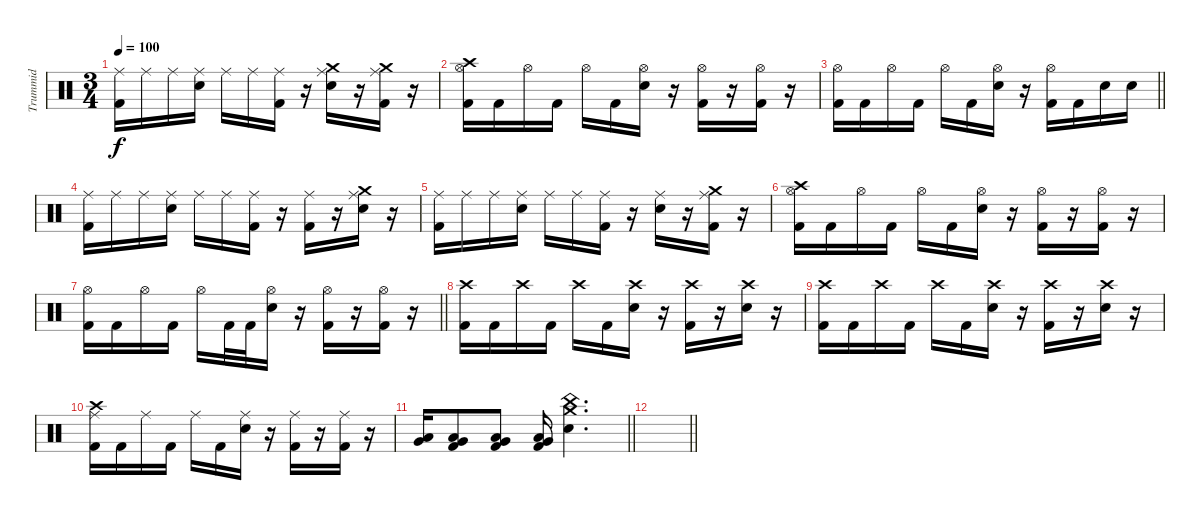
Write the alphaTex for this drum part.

\track ("Trummid" "Trummid") {instrument percussion}
\staff {score}
\articulation defaults
\ts (3 4)
\tempo 100
\clef neutral
\ks c
("Ride (middle)" "Kick (hit) 2").16{dy f} "Ride (middle)".16 "Ride (middle)".16 ("Ride (middle)" "Snare (hit) 2").16 "Ride (middle)".16 "Ride (middle)".16 ("Ride (middle)" "Kick (hit) 2").16 r.16 ("Crash medium (hit)" "Ride (middle)" "Snare (hit) 2").16 r.16 ("Crash medium (hit)" "Ride (middle)" "Kick (hit) 2").16 r.16 |
("Crash high (hit)" "Hi-Hat (open)" "Kick (hit) 2").16 "Kick (hit) 2".16 "Hi-Hat (open)".16 "Kick (hit) 2".16 "Hi-Hat (open)".16 "Kick (hit) 2".16 ("Hi-Hat (open)" "Snare (hit) 2").16 r.16 ("Hi-Hat (open)" "Kick (hit) 2").16 r.16 ("Hi-Hat (open)" "Kick (hit) 2").16 r.16 |
\barLineRight lightlight
("Hi-Hat (open)" "Kick (hit) 2").16 "Kick (hit) 2".16 "Hi-Hat (open)".16 "Kick (hit) 2".16 "Hi-Hat (open)".16 "Kick (hit) 2".16 ("Hi-Hat (open)" "Snare (hit) 2").16 r.16 ("Hi-Hat (open)" "Kick (hit) 2").16 "Kick (hit) 2".16 "Snare (hit) 2".16 "Snare (hit) 2".16 |
("Ride (middle)" "Kick (hit) 2").16 "Ride (middle)".16 "Ride (middle)".16 ("Ride (middle)" "Snare (hit) 2").16 "Ride (middle)".16 "Ride (middle)".16 ("Ride (middle)" "Kick (hit) 2").16 r.16 ("Ride (middle)" "Kick (hit) 2").16 r.16 ("Crash medium (hit)" "Ride (middle)" "Snare (hit) 2").16 r.16 |
("Ride (middle)" "Kick (hit) 2").16 "Ride (middle)".16 "Ride (middle)".16 ("Ride (middle)" "Snare (hit) 2").16 "Ride (middle)".16 "Ride (middle)".16 ("Ride (middle)" "Kick (hit) 2").16 r.16 ("Ride (middle)" "Snare (hit) 2").16 r.16 ("Crash medium (hit)" "Ride (middle)" "Kick (hit) 2").16 r.16 |
("Crash high (hit)" "Hi-Hat (open)" "Kick (hit) 2").16 "Kick (hit) 2".16 "Hi-Hat (open)".16 "Kick (hit) 2".16 "Hi-Hat (open)".16 "Kick (hit) 2".16 ("Hi-Hat (open)" "Snare (hit) 2").16 r.16 ("Hi-Hat (open)" "Kick (hit) 2").16 r.16 ("Hi-Hat (open)" "Kick (hit) 2").16 r.16 |
\barLineRight lightlight
("Hi-Hat (open)" "Kick (hit) 2").16 "Kick (hit) 2".16 "Hi-Hat (open)".16 "Kick (hit) 2".16 "Hi-Hat (open)".16 "Kick (hit) 2".32 "Kick (hit) 2".32 ("Hi-Hat (open)" "Snare (hit) 2").16 r.16 ("Hi-Hat (open)" "Kick (hit) 2").16 r.16 ("Hi-Hat (open)" "Kick (hit) 2").16 r.16 |
("Crash high (hit)" "Kick (hit) 2").16 "Kick (hit) 2".16 "Crash high (hit)".16 "Kick (hit) 2".16 "Crash high (hit)".16 "Kick (hit) 2".16 ("Crash high (hit)" "Snare (hit) 2").16 r.16 ("Crash high (hit)" "Kick (hit) 2").16 r.16 ("Crash high (hit)" "Snare (hit) 2").16 r.16 |
("Crash high (hit)" "Kick (hit) 2").16 "Kick (hit) 2".16 "Crash high (hit)".16 "Kick (hit) 2".16 "Crash high (hit)".16 "Kick (hit) 2".16 ("Crash high (hit)" "Snare (hit) 2").16 r.16 ("Crash high (hit)" "Kick (hit) 2").16 r.16 ("Crash high (hit)" "Snare (hit) 2").16 r.16 |
("Crash high (hit)" "Ride (middle)" "Kick (hit) 2").16 "Kick (hit) 2".16 "Ride (middle)".16 "Kick (hit) 2".16 "Ride (middle)".16 "Kick (hit) 2".16 ("Ride (middle)" "Snare (hit) 2").16 r.16 ("Ride (middle)" "Kick (hit) 2").16 r.16 ("Ride (middle)" "Kick (hit) 2").16 r.16 |
\barLineRight lightlight
("Very Low Tom (hit)" "Low Tom (hit)").16 ("Low Floor Tom (hit)" "Very Low Tom (hit)" "Kick (hit) 2").8 ("Low Floor Tom (hit)" "Very Low Tom (hit)" "Kick (hit) 2").8 ("Very Low Tom (hit)" "Low Tom (hit)" "Kick (hit) 2").16 ("China (hit)" "Crash medium (hit)" "Snare (hit) 2").4{d} |
\barLineRight lightlight
